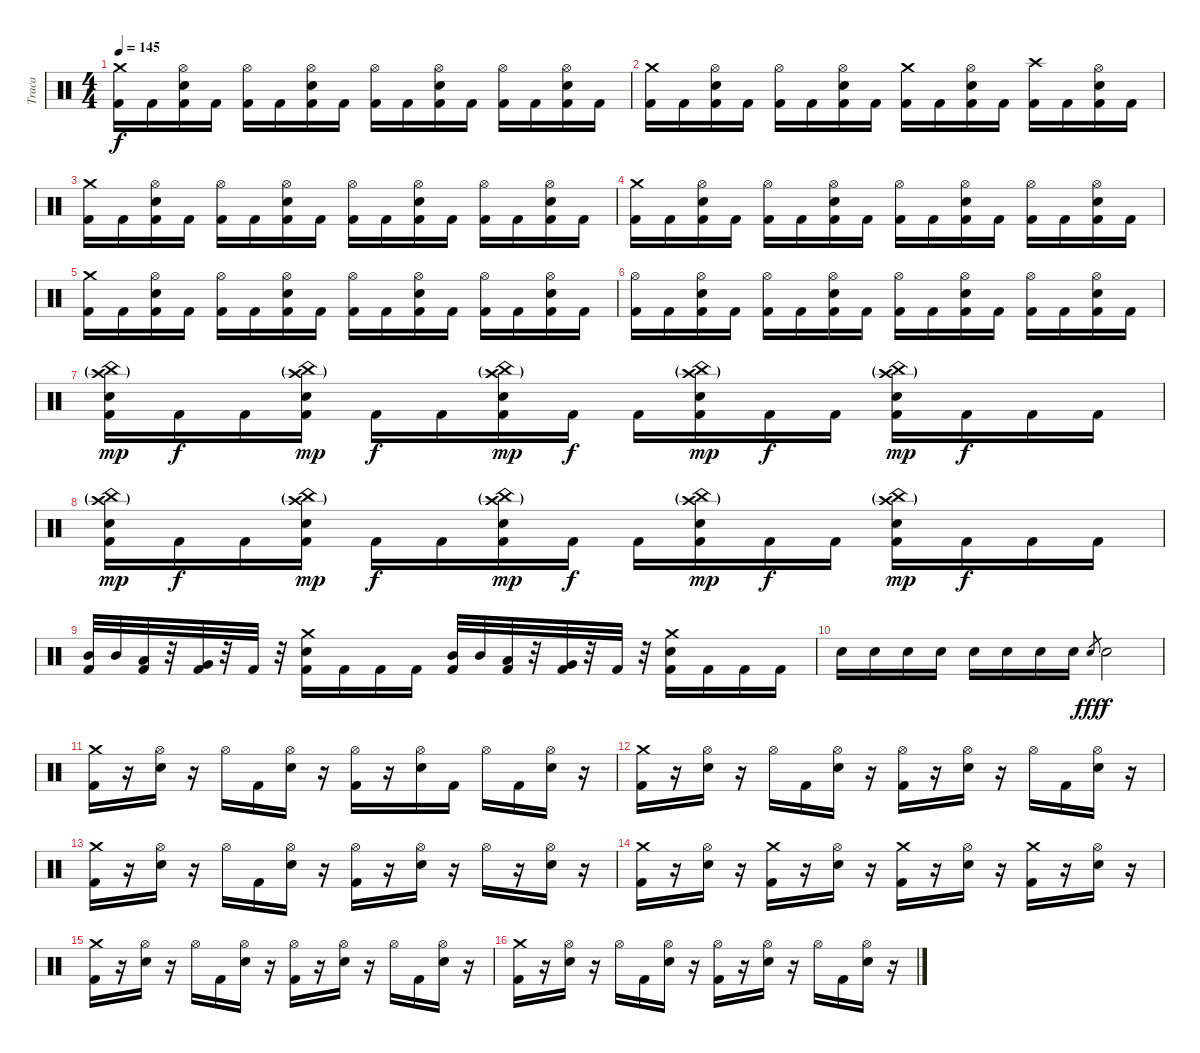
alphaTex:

\track ("Traca" "Traca") {instrument percussion}
\staff {score}
\articulation defaults
\ts (4 4)
\tempo 145
\clef neutral
\ks c
("Crash medium (hit)" "Kick (hit) 2").16{dy f} "Kick (hit) 2".16 ("Hi-Hat (open)" "Snare (hit) 2" "Kick (hit) 2").16 "Kick (hit) 2".16 ("Hi-Hat (open)" "Kick (hit) 2").16 "Kick (hit) 2".16 ("Hi-Hat (open)" "Snare (hit) 2" "Kick (hit) 2").16 "Kick (hit) 2".16 ("Hi-Hat (open)" "Kick (hit) 2").16 "Kick (hit) 2".16 ("Hi-Hat (open)" "Snare (hit) 2" "Kick (hit) 2").16 "Kick (hit) 2".16 ("Hi-Hat (open)" "Kick (hit) 2").16 "Kick (hit) 2".16 ("Hi-Hat (open)" "Snare (hit) 2" "Kick (hit) 2").16 "Kick (hit) 2".16 |
("Crash medium (hit)" "Kick (hit) 2").16 "Kick (hit) 2".16 ("Hi-Hat (open)" "Snare (hit) 2" "Kick (hit) 2").16 "Kick (hit) 2".16 ("Hi-Hat (open)" "Kick (hit) 2").16 "Kick (hit) 2".16 ("Hi-Hat (open)" "Snare (hit) 2" "Kick (hit) 2").16 "Kick (hit) 2".16 ("Crash medium (hit)" "Kick (hit) 2").16 "Kick (hit) 2".16 ("Hi-Hat (open)" "Snare (hit) 2" "Kick (hit) 2").16 "Kick (hit) 2".16 ("Crash high (hit)" "Kick (hit) 2").16 "Kick (hit) 2".16 ("Hi-Hat (open)" "Snare (hit) 2" "Kick (hit) 2").16 "Kick (hit) 2".16 |
("Crash medium (hit)" "Kick (hit) 2").16 "Kick (hit) 2".16 ("Hi-Hat (open)" "Snare (hit) 2" "Kick (hit) 2").16 "Kick (hit) 2".16 ("Hi-Hat (open)" "Kick (hit) 2").16 "Kick (hit) 2".16 ("Hi-Hat (open)" "Snare (hit) 2" "Kick (hit) 2").16 "Kick (hit) 2".16 ("Hi-Hat (open)" "Kick (hit) 2").16 "Kick (hit) 2".16 ("Hi-Hat (open)" "Snare (hit) 2" "Kick (hit) 2").16 "Kick (hit) 2".16 ("Hi-Hat (open)" "Kick (hit) 2").16 "Kick (hit) 2".16 ("Hi-Hat (open)" "Snare (hit) 2" "Kick (hit) 2").16 "Kick (hit) 2".16 |
("Crash medium (hit)" "Kick (hit) 2").16 "Kick (hit) 2".16 ("Hi-Hat (open)" "Snare (hit) 2" "Kick (hit) 2").16 "Kick (hit) 2".16 ("Hi-Hat (open)" "Kick (hit) 2").16 "Kick (hit) 2".16 ("Hi-Hat (open)" "Snare (hit) 2" "Kick (hit) 2").16 "Kick (hit) 2".16 ("Hi-Hat (open)" "Kick (hit) 2").16 "Kick (hit) 2".16 ("Hi-Hat (open)" "Snare (hit) 2" "Kick (hit) 2").16 "Kick (hit) 2".16 ("Hi-Hat (open)" "Kick (hit) 2").16 "Kick (hit) 2".16 ("Hi-Hat (open)" "Snare (hit) 2" "Kick (hit) 2").16 "Kick (hit) 2".16 |
("Crash medium (hit)" "Kick (hit) 2").16 "Kick (hit) 2".16 ("Hi-Hat (open)" "Snare (hit) 2" "Kick (hit) 2").16 "Kick (hit) 2".16 ("Hi-Hat (open)" "Kick (hit) 2").16 "Kick (hit) 2".16 ("Hi-Hat (open)" "Snare (hit) 2" "Kick (hit) 2").16 "Kick (hit) 2".16 ("Hi-Hat (open)" "Kick (hit) 2").16 "Kick (hit) 2".16 ("Hi-Hat (open)" "Snare (hit) 2" "Kick (hit) 2").16 "Kick (hit) 2".16 ("Hi-Hat (open)" "Kick (hit) 2").16 "Kick (hit) 2".16 ("Hi-Hat (open)" "Snare (hit) 2" "Kick (hit) 2").16 "Kick (hit) 2".16 |
("Hi-Hat (open)" "Kick (hit) 2").16 "Kick (hit) 2".16 ("Hi-Hat (open)" "Snare (hit) 2" "Kick (hit) 2").16 "Kick (hit) 2".16 ("Hi-Hat (open)" "Kick (hit) 2").16 "Kick (hit) 2".16 ("Hi-Hat (open)" "Snare (hit) 2" "Kick (hit) 2").16 "Kick (hit) 2".16 ("Hi-Hat (open)" "Kick (hit) 2").16 "Kick (hit) 2".16 ("Hi-Hat (open)" "Snare (hit) 2" "Kick (hit) 2").16 "Kick (hit) 2".16 ("Hi-Hat (open)" "Kick (hit) 2").16 "Kick (hit) 2".16 ("Hi-Hat (open)" "Snare (hit) 2" "Kick (hit) 2").16 "Kick (hit) 2".16 |
("Crash high (hit)"{g} "China (hit)"{g} "Snare (hit) 2" "Kick (hit) 2").16{dy mp} "Kick (hit) 2".16{dy f} "Kick (hit) 2".16 ("Crash high (hit)"{g} "China (hit)"{g} "Snare (hit) 2" "Kick (hit) 2").16{dy mp} "Kick (hit) 2".16{dy f} "Kick (hit) 2".16 ("Crash high (hit)"{g} "China (hit)"{g} "Snare (hit) 2" "Kick (hit) 2").16{dy mp} "Kick (hit) 2".16{dy f} "Kick (hit) 2".16 ("Crash high (hit)"{g} "China (hit)"{g} "Snare (hit) 2" "Kick (hit) 2").16{dy mp} "Kick (hit) 2".16{dy f} "Kick (hit) 2".16 ("Crash high (hit)"{g} "China (hit)"{g} "Snare (hit) 2" "Kick (hit) 2").16{dy mp} "Kick (hit) 2".16{dy f} "Kick (hit) 2".16 "Kick (hit) 2".16 |
("Crash high (hit)"{g} "China (hit)"{g} "Snare (hit) 2" "Kick (hit) 2").16{dy mp} "Kick (hit) 2".16{dy f} "Kick (hit) 2".16 ("Crash high (hit)"{g} "China (hit)"{g} "Snare (hit) 2" "Kick (hit) 2").16{dy mp} "Kick (hit) 2".16{dy f} "Kick (hit) 2".16 ("Crash high (hit)"{g} "China (hit)"{g} "Snare (hit) 2" "Kick (hit) 2").16{dy mp} "Kick (hit) 2".16{dy f} "Kick (hit) 2".16 ("Crash high (hit)"{g} "China (hit)"{g} "Snare (hit) 2" "Kick (hit) 2").16{dy mp} "Kick (hit) 2".16{dy f} "Kick (hit) 2".16 ("Crash high (hit)"{g} "China (hit)"{g} "Snare (hit) 2" "Kick (hit) 2").16{dy mp} "Kick (hit) 2".16{dy f} "Kick (hit) 2".16 "Kick (hit) 2".16 |
("Mid Tom (hit)" "Kick (hit) 2").32 "Mid Tom (hit)".32 ("Low Tom (hit)" "Kick (hit) 2").32 r.32 ("Very Low Tom (hit)" "Kick (hit) 2").32 r.32 "Kick (hit) 2".32 r.32 ("Crash medium (hit)" "Snare (hit) 2" "Kick (hit) 2").16 "Kick (hit) 2".16 "Kick (hit) 2".16 "Kick (hit) 2".16 ("Mid Tom (hit)" "Kick (hit) 2").32 "Mid Tom (hit)".32 ("Low Tom (hit)" "Kick (hit) 2").32 r.32 ("Very Low Tom (hit)" "Kick (hit) 2").32 r.32 "Kick (hit) 2".32 r.32 ("Crash medium (hit)" "Snare (hit) 2" "Kick (hit) 2").16 "Kick (hit) 2".16 "Kick (hit) 2".16 "Kick (hit) 2".16 |
"Snare (hit) 2".16 "Snare (hit) 2".16 "Snare (hit) 2".16 "Snare (hit) 2".16 "Snare (hit) 2".16 "Snare (hit) 2".16 "Snare (hit) 2".16 "Snare (hit) 2".16 "Snare (hit) 2".8{gr dy fff} "Snare (hit) 2".2{dy f} |
("Crash medium (hit)" "Kick (hit) 2").16 r.16 ("Hi-Hat (open)" "Snare (hit) 2").16 r.16 "Hi-Hat (open)".16 "Kick (hit) 2".16 ("Hi-Hat (open)" "Snare (hit) 2").16 r.16 ("Hi-Hat (open)" "Kick (hit) 2").16 r.16 ("Hi-Hat (open)" "Snare (hit) 2").16 "Kick (hit) 2".16 "Hi-Hat (open)".16 "Kick (hit) 2".16 ("Hi-Hat (open)" "Snare (hit) 2").16 r.16 |
("Crash medium (hit)" "Kick (hit) 2").16 r.16 ("Hi-Hat (open)" "Snare (hit) 2").16 r.16 "Hi-Hat (open)".16 "Kick (hit) 2".16 ("Hi-Hat (open)" "Snare (hit) 2").16 r.16 ("Hi-Hat (open)" "Kick (hit) 2").16 r.16 ("Hi-Hat (open)" "Snare (hit) 2").16 r.16 "Hi-Hat (open)".16 "Kick (hit) 2".16 ("Hi-Hat (open)" "Snare (hit) 2").16 r.16 |
("Crash medium (hit)" "Kick (hit) 2").16 r.16 ("Hi-Hat (open)" "Snare (hit) 2").16 r.16 "Hi-Hat (open)".16 "Kick (hit) 2".16 ("Hi-Hat (open)" "Snare (hit) 2").16 r.16 ("Hi-Hat (open)" "Kick (hit) 2").16 r.16 ("Hi-Hat (open)" "Snare (hit) 2").16 r.16 "Hi-Hat (open)".16 r.16 ("Hi-Hat (open)" "Snare (hit) 2").16 r.16 |
("Crash medium (hit)" "Kick (hit) 2").16 r.16 ("Hi-Hat (open)" "Snare (hit) 2").16 r.16 ("Crash medium (hit)" "Kick (hit) 2").16 r.16 ("Hi-Hat (open)" "Snare (hit) 2").16 r.16 ("Crash medium (hit)" "Kick (hit) 2").16 r.16 ("Hi-Hat (open)" "Snare (hit) 2").16 r.16 ("Crash medium (hit)" "Kick (hit) 2").16 r.16 ("Hi-Hat (open)" "Snare (hit) 2").16 r.16 |
("Crash medium (hit)" "Kick (hit) 2").16 r.16 ("Hi-Hat (open)" "Snare (hit) 2").16 r.16 "Hi-Hat (open)".16 "Kick (hit) 2".16 ("Hi-Hat (open)" "Snare (hit) 2").16 r.16 ("Hi-Hat (open)" "Kick (hit) 2").16 r.16 ("Hi-Hat (open)" "Snare (hit) 2").16 r.16 "Hi-Hat (open)".16 "Kick (hit) 2".16 ("Hi-Hat (open)" "Snare (hit) 2").16 r.16 |
("Crash medium (hit)" "Kick (hit) 2").16 r.16 ("Hi-Hat (open)" "Snare (hit) 2").16 r.16 "Hi-Hat (open)".16 "Kick (hit) 2".16 ("Hi-Hat (open)" "Snare (hit) 2").16 r.16 ("Hi-Hat (open)" "Kick (hit) 2").16 r.16 ("Hi-Hat (open)" "Snare (hit) 2").16 r.16 "Hi-Hat (open)".16 "Kick (hit) 2".16 ("Hi-Hat (open)" "Snare (hit) 2").16 r.16
